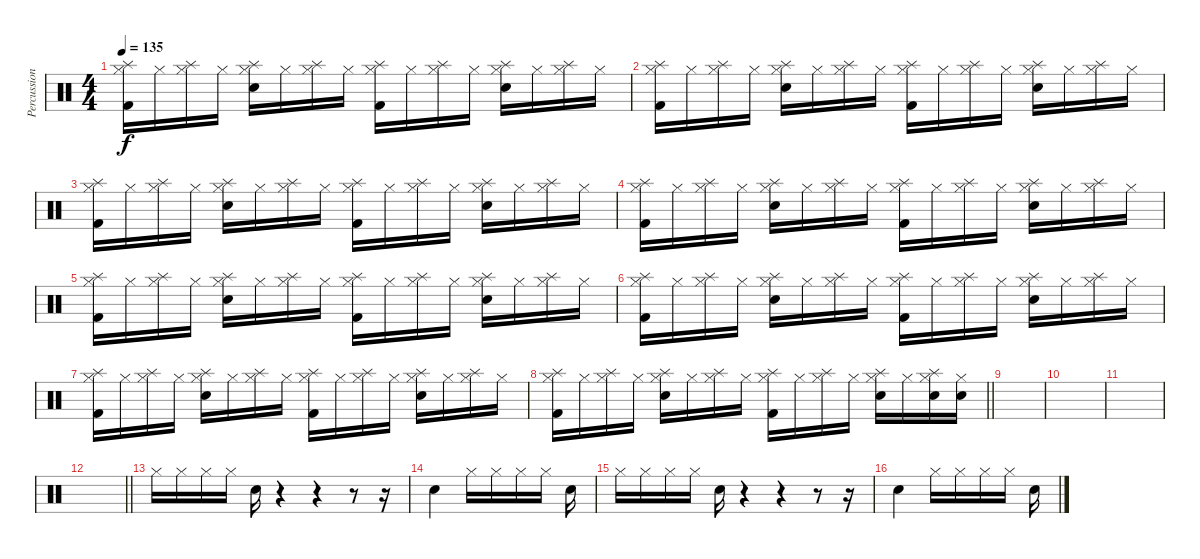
\track ("Percussion" "Percussion") {instrument percussion}
\staff {score}
\articulation defaults
\ts (4 4)
\section ("" "")
\tempo 135
\clef neutral
\ks c
("Hi-Hat (closed)" "Splash (hit)" "Kick (hit) 2").16{dy f} "Hi-Hat (closed)".16 ("Hi-Hat (closed)" "Splash (hit)").16 "Hi-Hat (closed)".16 ("Hi-Hat (closed)" "Splash (hit)" "Snare (hit) 2").16 "Hi-Hat (closed)".16 ("Hi-Hat (closed)" "Splash (hit)").16 "Hi-Hat (closed)".16 ("Hi-Hat (closed)" "Splash (hit)" "Kick (hit) 2").16 "Hi-Hat (closed)".16 ("Hi-Hat (closed)" "Splash (hit)").16 "Hi-Hat (closed)".16 ("Hi-Hat (closed)" "Splash (hit)" "Snare (hit) 2").16 "Hi-Hat (closed)".16 ("Hi-Hat (closed)" "Splash (hit)").16 "Hi-Hat (closed)".16 |
("Hi-Hat (closed)" "Splash (hit)" "Kick (hit) 2").16 "Hi-Hat (closed)".16 ("Hi-Hat (closed)" "Splash (hit)").16 "Hi-Hat (closed)".16 ("Hi-Hat (closed)" "Splash (hit)" "Snare (hit) 2").16 "Hi-Hat (closed)".16 ("Hi-Hat (closed)" "Splash (hit)").16 "Hi-Hat (closed)".16 ("Hi-Hat (closed)" "Splash (hit)" "Kick (hit) 2").16 "Hi-Hat (closed)".16 ("Hi-Hat (closed)" "Splash (hit)").16 "Hi-Hat (closed)".16 ("Hi-Hat (closed)" "Splash (hit)" "Snare (hit) 2").16 "Hi-Hat (closed)".16 ("Hi-Hat (closed)" "Splash (hit)").16 "Hi-Hat (closed)".16 |
("Hi-Hat (closed)" "Splash (hit)" "Kick (hit) 2").16 "Hi-Hat (closed)".16 ("Hi-Hat (closed)" "Splash (hit)").16 "Hi-Hat (closed)".16 ("Hi-Hat (closed)" "Splash (hit)" "Snare (hit) 2").16 "Hi-Hat (closed)".16 ("Hi-Hat (closed)" "Splash (hit)").16 "Hi-Hat (closed)".16 ("Hi-Hat (closed)" "Splash (hit)" "Kick (hit) 2").16 "Hi-Hat (closed)".16 ("Hi-Hat (closed)" "Splash (hit)").16 "Hi-Hat (closed)".16 ("Hi-Hat (closed)" "Splash (hit)" "Snare (hit) 2").16 "Hi-Hat (closed)".16 ("Hi-Hat (closed)" "Splash (hit)").16 "Hi-Hat (closed)".16 |
("Hi-Hat (closed)" "Splash (hit)" "Kick (hit) 2").16 "Hi-Hat (closed)".16 ("Hi-Hat (closed)" "Splash (hit)").16 "Hi-Hat (closed)".16 ("Hi-Hat (closed)" "Splash (hit)" "Snare (hit) 2").16 "Hi-Hat (closed)".16 ("Hi-Hat (closed)" "Splash (hit)").16 "Hi-Hat (closed)".16 ("Hi-Hat (closed)" "Splash (hit)" "Kick (hit) 2").16 "Hi-Hat (closed)".16 ("Hi-Hat (closed)" "Splash (hit)").16 "Hi-Hat (closed)".16 ("Hi-Hat (closed)" "Splash (hit)" "Snare (hit) 2").16 "Hi-Hat (closed)".16 ("Hi-Hat (closed)" "Splash (hit)").16 "Hi-Hat (closed)".16 |
("Hi-Hat (closed)" "Splash (hit)" "Kick (hit) 2").16 "Hi-Hat (closed)".16 ("Hi-Hat (closed)" "Splash (hit)").16 "Hi-Hat (closed)".16 ("Hi-Hat (closed)" "Splash (hit)" "Snare (hit) 2").16 "Hi-Hat (closed)".16 ("Hi-Hat (closed)" "Splash (hit)").16 "Hi-Hat (closed)".16 ("Hi-Hat (closed)" "Splash (hit)" "Kick (hit) 2").16 "Hi-Hat (closed)".16 ("Hi-Hat (closed)" "Splash (hit)").16 "Hi-Hat (closed)".16 ("Hi-Hat (closed)" "Splash (hit)" "Snare (hit) 2").16 "Hi-Hat (closed)".16 ("Hi-Hat (closed)" "Splash (hit)").16 "Hi-Hat (closed)".16 |
("Hi-Hat (closed)" "Splash (hit)" "Kick (hit) 2").16 "Hi-Hat (closed)".16 ("Hi-Hat (closed)" "Splash (hit)").16 "Hi-Hat (closed)".16 ("Hi-Hat (closed)" "Splash (hit)" "Snare (hit) 2").16 "Hi-Hat (closed)".16 ("Hi-Hat (closed)" "Splash (hit)").16 "Hi-Hat (closed)".16 ("Hi-Hat (closed)" "Splash (hit)" "Kick (hit) 2").16 "Hi-Hat (closed)".16 ("Hi-Hat (closed)" "Splash (hit)").16 "Hi-Hat (closed)".16 ("Hi-Hat (closed)" "Splash (hit)" "Snare (hit) 2").16 "Hi-Hat (closed)".16 ("Hi-Hat (closed)" "Splash (hit)").16 "Hi-Hat (closed)".16 |
("Hi-Hat (closed)" "Splash (hit)" "Kick (hit) 2").16 "Hi-Hat (closed)".16 ("Hi-Hat (closed)" "Splash (hit)").16 "Hi-Hat (closed)".16 ("Hi-Hat (closed)" "Splash (hit)" "Snare (hit) 2").16 "Hi-Hat (closed)".16 ("Hi-Hat (closed)" "Splash (hit)").16 "Hi-Hat (closed)".16 ("Hi-Hat (closed)" "Splash (hit)" "Kick (hit) 2").16 "Hi-Hat (closed)".16 ("Hi-Hat (closed)" "Splash (hit)").16 "Hi-Hat (closed)".16 ("Hi-Hat (closed)" "Splash (hit)" "Snare (hit) 2").16 "Hi-Hat (closed)".16 ("Hi-Hat (closed)" "Splash (hit)").16 "Hi-Hat (closed)".16 |
\barLineRight lightlight
("Hi-Hat (closed)" "Splash (hit)" "Kick (hit) 2").16 "Hi-Hat (closed)".16 ("Hi-Hat (closed)" "Splash (hit)").16 "Hi-Hat (closed)".16 ("Hi-Hat (closed)" "Splash (hit)" "Snare (hit) 2").16 "Hi-Hat (closed)".16 ("Hi-Hat (closed)" "Splash (hit)").16 "Hi-Hat (closed)".16 ("Hi-Hat (closed)" "Splash (hit)" "Kick (hit) 2").16 "Hi-Hat (closed)".16 ("Hi-Hat (closed)" "Splash (hit)").16 "Hi-Hat (closed)".16 ("Hi-Hat (closed)" "Splash (hit)" "Snare (hit) 2").16 "Hi-Hat (closed)".16 ("Hi-Hat (closed)" "Splash (hit)" "Snare (hit) 2").16 ("Hi-Hat (closed)" "Snare (hit) 2").16 |
\section ("" "")
|
|
|
\barLineRight lightlight
|
\section ("" "")
"Hi-Hat (closed)".16 "Hi-Hat (closed)".16 "Hi-Hat (closed)".16 "Hi-Hat (closed)".16 "Snare (hit) 2".16 r.4 r.4 r.8 r.16 |
"Snare (hit) 2".4 "Hi-Hat (closed)".16 "Hi-Hat (closed)".16 "Hi-Hat (closed)".16 "Hi-Hat (closed)".16 "Snare (hit) 2".16 |
"Hi-Hat (closed)".16 "Hi-Hat (closed)".16 "Hi-Hat (closed)".16 "Hi-Hat (closed)".16 "Snare (hit) 2".16 r.4 r.4 r.8 r.16 |
"Snare (hit) 2".4 "Hi-Hat (closed)".16 "Hi-Hat (closed)".16 "Hi-Hat (closed)".16 "Hi-Hat (closed)".16 "Snare (hit) 2".16
